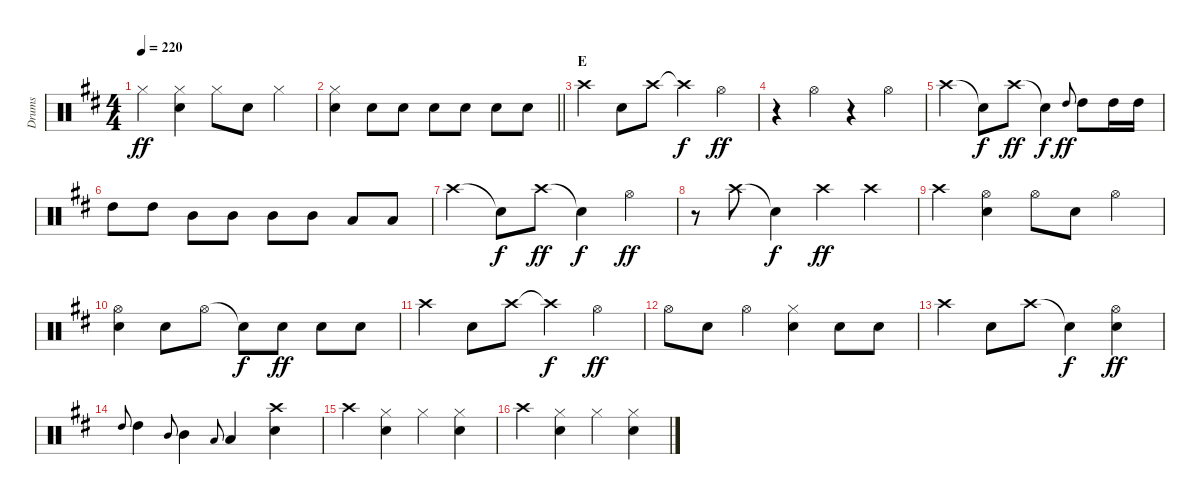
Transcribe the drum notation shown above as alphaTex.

\track ("Drums" "Drums") {instrument percussion}
\staff {score}
\articulation defaults
\ts (4 4)
\tempo 220
\clef neutral
\ks d "Hi-Hat (closed)".4{dy ff}
("Hi-Hat (closed)" "Snare (hit) 2").4 "Hi-Hat (closed)".8 "Snare (hit) 2".8 "Hi-Hat (closed)".4 |
\barLineRight lightlight
("Hi-Hat (closed)" "Snare (hit) 2").4 "Snare (hit) 2".8 "Snare (hit) 2".8 "Snare (hit) 2".8 "Snare (hit) 2".8 "Snare (hit) 2".8 "Snare (hit) 2".8 |
\section ("" "E")
"Crash high (hit)".4 "Snare (hit) 2".8 "Crash high (hit)".8 "Crash high (hit)"{t}.4{dy f} "Hi-Hat (open)".4{dy ff} |
r.4 "Hi-Hat (open)".4 r.4 "Hi-Hat (open)".4 |
"Crash high (hit)".4 "Snare (hit)"{t}.8{dy f} "Crash high (hit)".8{dy ff} "Snare (hit)"{t}.4{dy f} "High Tom (hit)".8{gr onbeat dy ff} "High Tom (hit)".8 "High Tom (hit)".16 "High Tom (hit)".16 |
"High Tom (hit)".8 "High Tom (hit)".8 "Mid Tom (hit)".8 "Mid Tom (hit)".8 "Mid Tom (hit)".8 "Mid Tom (hit)".8 "Low Tom (hit)".8 "Low Tom (hit)".8 |
"Crash high (hit)".4 "Snare (hit)"{t}.8{dy f} "Crash high (hit)".8{dy ff} "Snare (hit)"{t}.4{dy f} "Hi-Hat (open)".4{dy ff} |
r.8 "Crash high (hit)".8 "Snare (hit)"{t}.4{dy f} "Crash high (hit)".4{dy ff} "Crash high (hit)".4 |
"Crash high (hit)".4 ("Hi-Hat (open)" "Snare (hit) 2").4 "Hi-Hat (open)".8 "Snare (hit) 2".8 "Hi-Hat (open)".4 |
("Hi-Hat (open)" "Snare (hit) 2").4 "Snare (hit) 2".8 "Hi-Hat (open)".8 "Snare (hit)"{t}.8{dy f} "Snare (hit) 2".8{dy ff} "Snare (hit) 2".8 "Snare (hit) 2".8 |
"Crash high (hit)".4 "Snare (hit) 2".8 "Crash high (hit)".8 "Crash high (hit)"{t}.4{dy f} "Hi-Hat (open)".4{dy ff} |
"Hi-Hat (open)".8 "Snare (hit) 2".8 "Hi-Hat (open)".4 ("Hi-Hat (closed)" "Snare (hit) 2").4 "Snare (hit) 2".8 "Snare (hit) 2".8 |
"Crash high (hit)".4 "Snare (hit) 2".8 "Crash high (hit)".8 "Snare (hit)"{t}.4{dy f} ("Hi-Hat (open)" "Snare (hit) 2").4{dy ff} |
"High Tom (hit)".8{gr onbeat} "High Tom (hit)".4 "Mid Tom (hit)".8{gr onbeat} "Mid Tom (hit)".4 "Low Tom (hit)".8{gr onbeat} "Low Tom (hit)".4 ("Crash high (hit)" "Snare (hit) 2").4 |
"Crash high (hit)".4 ("Hi-Hat (closed)" "Snare (hit) 2").4 "Hi-Hat (closed)".4 ("Hi-Hat (closed)" "Snare (hit) 2").4 |
"Crash high (hit)".4 ("Hi-Hat (closed)" "Snare (hit) 2").4 "Hi-Hat (closed)".4 ("Hi-Hat (closed)" "Snare (hit) 2").4
